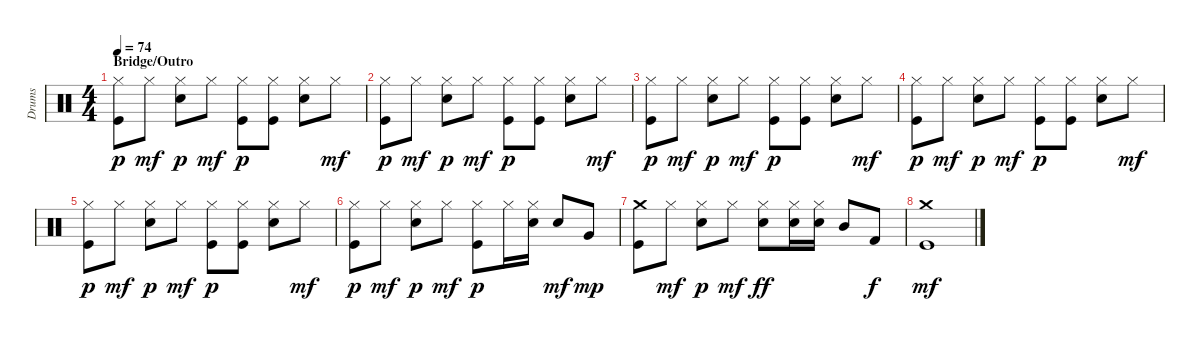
\track ("Drums" "Drums") {instrument percussion}
\staff {score}
\articulation defaults
\ts (4 4)
\section ("" "Bridge/Outro")
\tempo 74
\clef neutral
\ks c
("Hi-Hat (closed)" "Kick (hit)").8{dy p} "Hi-Hat (closed)".8{dy mf} ("Hi-Hat (closed)" "Electric Snare (hit)").8{dy p} "Hi-Hat (closed)".8{dy mf} ("Hi-Hat (closed)" "Kick (hit)").8{dy p} ("Hi-Hat (closed)" "Kick (hit)").8 ("Hi-Hat (closed)" "Electric Snare (hit)").8 "Hi-Hat (closed)".8{dy mf} |
("Hi-Hat (closed)" "Kick (hit)").8{dy p} "Hi-Hat (closed)".8{dy mf} ("Hi-Hat (closed)" "Electric Snare (hit)").8{dy p} "Hi-Hat (closed)".8{dy mf} ("Hi-Hat (closed)" "Kick (hit)").8{dy p} ("Hi-Hat (closed)" "Kick (hit)").8 ("Hi-Hat (closed)" "Electric Snare (hit)").8 "Hi-Hat (closed)".8{dy mf} |
("Hi-Hat (closed)" "Kick (hit)").8{dy p} "Hi-Hat (closed)".8{dy mf} ("Hi-Hat (closed)" "Electric Snare (hit)").8{dy p} "Hi-Hat (closed)".8{dy mf} ("Hi-Hat (closed)" "Kick (hit)").8{dy p} ("Hi-Hat (closed)" "Kick (hit)").8 ("Hi-Hat (closed)" "Electric Snare (hit)").8 "Hi-Hat (closed)".8{dy mf} |
("Hi-Hat (closed)" "Kick (hit)").8{dy p} "Hi-Hat (closed)".8{dy mf} ("Hi-Hat (closed)" "Electric Snare (hit)").8{dy p} "Hi-Hat (closed)".8{dy mf} ("Hi-Hat (closed)" "Kick (hit)").8{dy p} ("Hi-Hat (closed)" "Kick (hit)").8 ("Hi-Hat (closed)" "Electric Snare (hit)").8 "Hi-Hat (closed)".8{dy mf} |
("Hi-Hat (closed)" "Kick (hit)").8{dy p} "Hi-Hat (closed)".8{dy mf} ("Hi-Hat (closed)" "Electric Snare (hit)").8{dy p} "Hi-Hat (closed)".8{dy mf} ("Hi-Hat (closed)" "Kick (hit)").8{dy p} ("Hi-Hat (closed)" "Kick (hit)").8 ("Hi-Hat (closed)" "Electric Snare (hit)").8 "Hi-Hat (closed)".8{dy mf} |
("Hi-Hat (closed)" "Kick (hit)").8{dy p} "Hi-Hat (closed)".8{dy mf} ("Hi-Hat (closed)" "Electric Snare (hit)").8{dy p} "Hi-Hat (closed)".8{dy mf} ("Hi-Hat (closed)" "Kick (hit)").8{dy p} "Hi-Hat (closed)".16 ("Hi-Hat (closed)" "Electric Snare (hit)").16 "Electric Snare (hit)".8{dy mf} "Very Low Tom (hit)".8{dy mp} |
("Crash medium (hit)" "Kick (hit)").8 "Hi-Hat (closed)".8{dy mf} ("Hi-Hat (closed)" "Electric Snare (hit)").8{dy p} "Hi-Hat (closed)".8{dy mf} ("Hi-Hat (closed)" "Electric Snare (hit)").8{dy ff} ("Hi-Hat (closed)" "Electric Snare (hit)").16 ("Hi-Hat (closed)" "Electric Snare (hit)").16 "Mid Tom (hit)".8 "Kick (hit) 2".8{dy f} |
("Crash medium (hit)" "Kick (hit)").1{dy mf}
